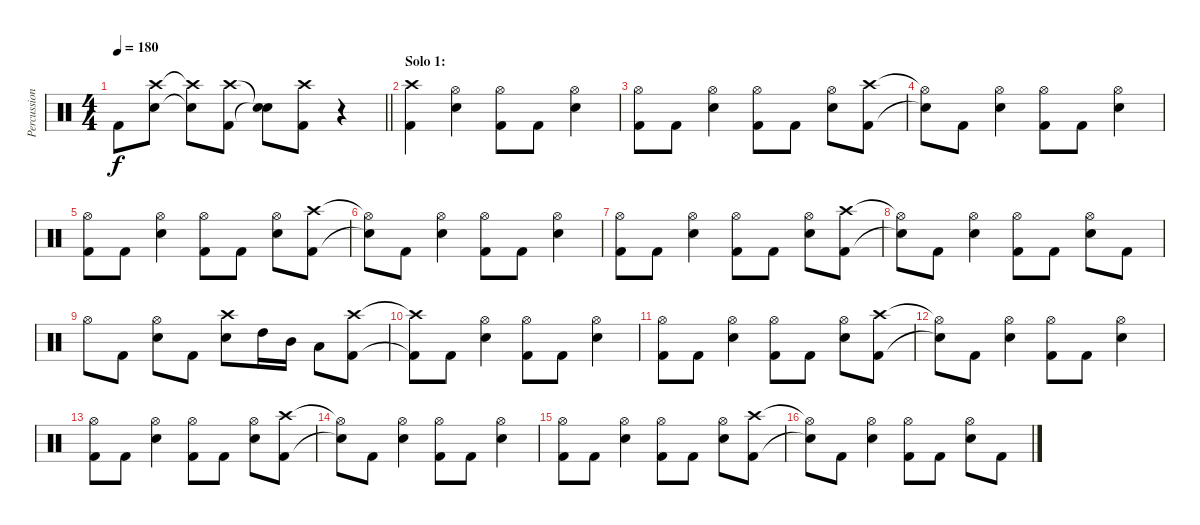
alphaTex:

\track ("Percussion" "Percussion") {instrument percussion}
\staff {score}
\articulation defaults
\ts (4 4)
\tempo 180
\clef neutral
\barLineRight lightlight
\ks c "Kick (hit) 2".8{dy f}
("Crash high (hit)" "Electric Snare (hit)").8 ("Crash high (hit)"{t} "Snare (hit)"{t}).8 ("Crash high (hit)" "Kick (hit) 2").8 ("Snare (hit)"{t} "Snare (hit)"{t}).8 ("Crash high (hit)" "Kick (hit) 2").8 r.4 |
\section ("" "Solo 1:")
("Crash high (hit)" "Kick (hit) 2").4 ("Hi-Hat (open)" "Electric Snare (hit)").4 ("Hi-Hat (open)" "Kick (hit) 2").8 "Kick (hit) 2".8 ("Hi-Hat (open)" "Electric Snare (hit)").4 |
("Hi-Hat (open)" "Kick (hit) 2").8 "Kick (hit) 2".8 ("Hi-Hat (open)" "Electric Snare (hit)").4 ("Hi-Hat (open)" "Kick (hit) 2").8 "Kick (hit) 2".8 ("Hi-Hat (open)" "Electric Snare (hit)").8 ("Crash high (hit)" "Kick (hit) 2").8 |
("Hi-Hat (open)"{t} "Snare (hit)"{t}).8 "Kick (hit) 2".8 ("Hi-Hat (open)" "Electric Snare (hit)").4 ("Hi-Hat (open)" "Kick (hit) 2").8 "Kick (hit) 2".8 ("Hi-Hat (open)" "Electric Snare (hit)").4 |
("Hi-Hat (open)" "Kick (hit) 2").8 "Kick (hit) 2".8 ("Hi-Hat (open)" "Electric Snare (hit)").4 ("Hi-Hat (open)" "Kick (hit) 2").8 "Kick (hit) 2".8 ("Hi-Hat (open)" "Electric Snare (hit)").8 ("Crash high (hit)" "Kick (hit) 2").8 |
("Hi-Hat (open)"{t} "Snare (hit)"{t}).8 "Kick (hit) 2".8 ("Hi-Hat (open)" "Electric Snare (hit)").4 ("Hi-Hat (open)" "Kick (hit) 2").8 "Kick (hit) 2".8 ("Hi-Hat (open)" "Electric Snare (hit)").4 |
("Hi-Hat (open)" "Kick (hit) 2").8 "Kick (hit) 2".8 ("Hi-Hat (open)" "Electric Snare (hit)").4 ("Hi-Hat (open)" "Kick (hit) 2").8 "Kick (hit) 2".8 ("Hi-Hat (open)" "Electric Snare (hit)").8 ("Crash high (hit)" "Kick (hit) 2").8 |
("Hi-Hat (open)"{t} "Snare (hit)"{t}).8 "Kick (hit) 2".8 ("Hi-Hat (open)" "Electric Snare (hit)").4 ("Hi-Hat (open)" "Kick (hit) 2").8 "Kick (hit) 2".8 ("Hi-Hat (open)" "Electric Snare (hit)").8 "Kick (hit) 2".8 |
"Hi-Hat (open)".8 "Kick (hit) 2".8 ("Hi-Hat (open)" "Electric Snare (hit)").8 "Kick (hit) 2".8 ("Crash high (hit)" "Electric Snare (hit)").8 "High Tom (hit)".16 "Mid Tom (hit)".16 "Low Tom (hit)".8 ("Crash high (hit)" "Kick (hit) 2").8 |
("Crash high (hit)"{t} "Kick (hit) 2"{t}).8 "Kick (hit) 2".8 ("Hi-Hat (open)" "Electric Snare (hit)").4 ("Hi-Hat (open)" "Kick (hit) 2").8 "Kick (hit) 2".8 ("Hi-Hat (open)" "Electric Snare (hit)").4 |
("Hi-Hat (open)" "Kick (hit) 2").8 "Kick (hit) 2".8 ("Hi-Hat (open)" "Electric Snare (hit)").4 ("Hi-Hat (open)" "Kick (hit) 2").8 "Kick (hit) 2".8 ("Hi-Hat (open)" "Electric Snare (hit)").8 ("Crash high (hit)" "Kick (hit) 2").8 |
("Hi-Hat (open)"{t} "Snare (hit)"{t}).8 "Kick (hit) 2".8 ("Hi-Hat (open)" "Electric Snare (hit)").4 ("Hi-Hat (open)" "Kick (hit) 2").8 "Kick (hit) 2".8 ("Hi-Hat (open)" "Electric Snare (hit)").4 |
("Hi-Hat (open)" "Kick (hit) 2").8 "Kick (hit) 2".8 ("Hi-Hat (open)" "Electric Snare (hit)").4 ("Hi-Hat (open)" "Kick (hit) 2").8 "Kick (hit) 2".8 ("Hi-Hat (open)" "Electric Snare (hit)").8 ("Crash high (hit)" "Kick (hit) 2").8 |
("Hi-Hat (open)"{t} "Snare (hit)"{t}).8 "Kick (hit) 2".8 ("Hi-Hat (open)" "Electric Snare (hit)").4 ("Hi-Hat (open)" "Kick (hit) 2").8 "Kick (hit) 2".8 ("Hi-Hat (open)" "Electric Snare (hit)").4 |
("Hi-Hat (open)" "Kick (hit) 2").8 "Kick (hit) 2".8 ("Hi-Hat (open)" "Electric Snare (hit)").4 ("Hi-Hat (open)" "Kick (hit) 2").8 "Kick (hit) 2".8 ("Hi-Hat (open)" "Electric Snare (hit)").8 ("Crash high (hit)" "Kick (hit) 2").8 |
("Hi-Hat (open)"{t} "Snare (hit)"{t}).8 "Kick (hit) 2".8 ("Hi-Hat (open)" "Electric Snare (hit)").4 ("Hi-Hat (open)" "Kick (hit) 2").8 "Kick (hit) 2".8 ("Hi-Hat (open)" "Electric Snare (hit)").8 "Kick (hit) 2".8
